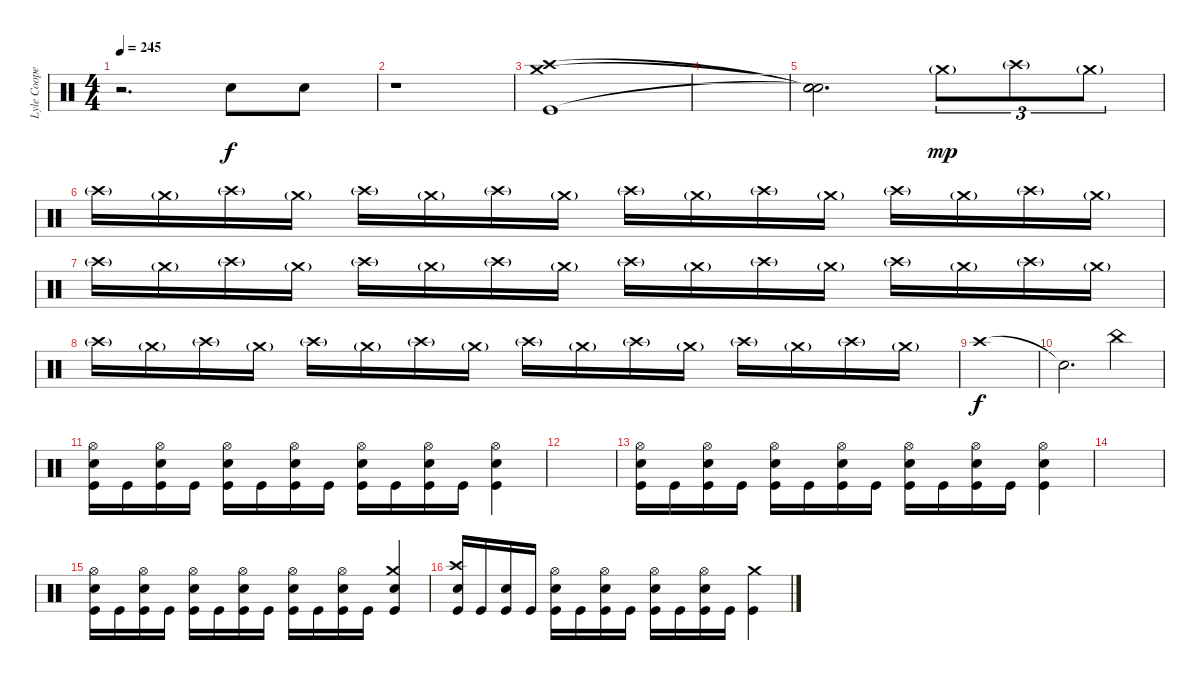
\track ("Lyle Cooper" "Lyle Coope") {instrument percussion}
\staff {score}
\articulation defaults
\ts (4 4)
\tempo 245
\clef neutral
\ks c
r.2{d dy f} "Snare (hit) 2".8 "Snare (hit) 2".8 |
r.1 |
("Crash high (hit)" "Crash medium (hit)" "Kick (hit)").1 |
|
("Snare (hit)"{t} "Snare (hit)"{t} "Snare (hit)"{t}).2{d} "Crash medium (hit)"{g}.8{tu (3 2) dy mp} "Crash high (hit)"{g}.8{tu (3 2)} "Crash medium (hit)"{g}.8{tu (3 2)} |
"Crash high (hit)"{g}.16 "Crash medium (hit)"{g}.16 "Crash high (hit)"{g}.16 "Crash medium (hit)"{g}.16 "Crash high (hit)"{g}.16 "Crash medium (hit)"{g}.16 "Crash high (hit)"{g}.16 "Crash medium (hit)"{g}.16 "Crash high (hit)"{g}.16 "Crash medium (hit)"{g}.16 "Crash high (hit)"{g}.16 "Crash medium (hit)"{g}.16 "Crash high (hit)"{g}.16 "Crash medium (hit)"{g}.16 "Crash high (hit)"{g}.16 "Crash medium (hit)"{g}.16 |
"Crash high (hit)"{g}.16 "Crash medium (hit)"{g}.16 "Crash high (hit)"{g}.16 "Crash medium (hit)"{g}.16 "Crash high (hit)"{g}.16 "Crash medium (hit)"{g}.16 "Crash high (hit)"{g}.16 "Crash medium (hit)"{g}.16 "Crash high (hit)"{g}.16 "Crash medium (hit)"{g}.16 "Crash high (hit)"{g}.16 "Crash medium (hit)"{g}.16 "Crash high (hit)"{g}.16 "Crash medium (hit)"{g}.16 "Crash high (hit)"{g}.16 "Crash medium (hit)"{g}.16 |
"Crash high (hit)"{g}.16 "Crash medium (hit)"{g}.16 "Crash high (hit)"{g}.16 "Crash medium (hit)"{g}.16 "Crash high (hit)"{g}.16 "Crash medium (hit)"{g}.16 "Crash high (hit)"{g}.16 "Crash medium (hit)"{g}.16 "Crash high (hit)"{g}.16 "Crash medium (hit)"{g}.16 "Crash high (hit)"{g}.16 "Crash medium (hit)"{g}.16 "Crash high (hit)"{g}.16 "Crash medium (hit)"{g}.16 "Crash high (hit)"{g}.16 "Crash medium (hit)"{g}.16 |
"Crash high (hit)".1{dy f} |
"Snare (hit)"{t}.2{d} "China (hit)".4 |
("Hi-Hat (open)" "Snare (hit) 2" "Kick (hit)").16 "Kick (hit)".16 ("Hi-Hat (open)" "Snare (hit) 2" "Kick (hit)").16 "Kick (hit)".16 ("Hi-Hat (open)" "Snare (hit) 2" "Kick (hit)").16 "Kick (hit)".16 ("Hi-Hat (open)" "Snare (hit) 2" "Kick (hit)").16 "Kick (hit)".16 ("Hi-Hat (open)" "Snare (hit) 2" "Kick (hit)").16 "Kick (hit)".16 ("Hi-Hat (open)" "Snare (hit) 2" "Kick (hit)").16 "Kick (hit)".16 ("Hi-Hat (open)" "Snare (hit) 2" "Kick (hit)").4 |
|
("Hi-Hat (open)" "Snare (hit) 2" "Kick (hit)").16 "Kick (hit)".16 ("Hi-Hat (open)" "Snare (hit) 2" "Kick (hit)").16 "Kick (hit)".16 ("Hi-Hat (open)" "Snare (hit) 2" "Kick (hit)").16 "Kick (hit)".16 ("Hi-Hat (open)" "Snare (hit) 2" "Kick (hit)").16 "Kick (hit)".16 ("Hi-Hat (open)" "Snare (hit) 2" "Kick (hit)").16 "Kick (hit)".16 ("Hi-Hat (open)" "Snare (hit) 2" "Kick (hit)").16 "Kick (hit)".16 ("Hi-Hat (open)" "Snare (hit) 2" "Kick (hit)").4 |
|
("Hi-Hat (open)" "Snare (hit) 2" "Kick (hit)").16 "Kick (hit)".16 ("Hi-Hat (open)" "Snare (hit) 2" "Kick (hit)").16 "Kick (hit)".16 ("Hi-Hat (open)" "Snare (hit) 2" "Kick (hit)").16 "Kick (hit)".16 ("Hi-Hat (open)" "Snare (hit) 2" "Kick (hit)").16 "Kick (hit)".16 ("Hi-Hat (open)" "Snare (hit) 2" "Kick (hit)").16 "Kick (hit)".16 ("Hi-Hat (open)" "Snare (hit) 2" "Kick (hit)").16 "Kick (hit)".16 ("Crash medium (hit)" "Snare (hit) 2" "Kick (hit)").4 |
("Crash high (hit)" "Snare (hit) 2" "Kick (hit)").16 "Kick (hit)".16 ("Snare (hit) 2" "Kick (hit)").16 "Kick (hit)".16 ("Hi-Hat (open)" "Snare (hit) 2" "Kick (hit)").16 "Kick (hit)".16 ("Hi-Hat (open)" "Snare (hit) 2" "Kick (hit)").16 "Kick (hit)".16 ("Hi-Hat (open)" "Snare (hit) 2" "Kick (hit)").16 "Kick (hit)".16 ("Hi-Hat (open)" "Snare (hit) 2" "Kick (hit)").16 "Kick (hit)".16 ("Crash medium (hit)" "Kick (hit)").4
